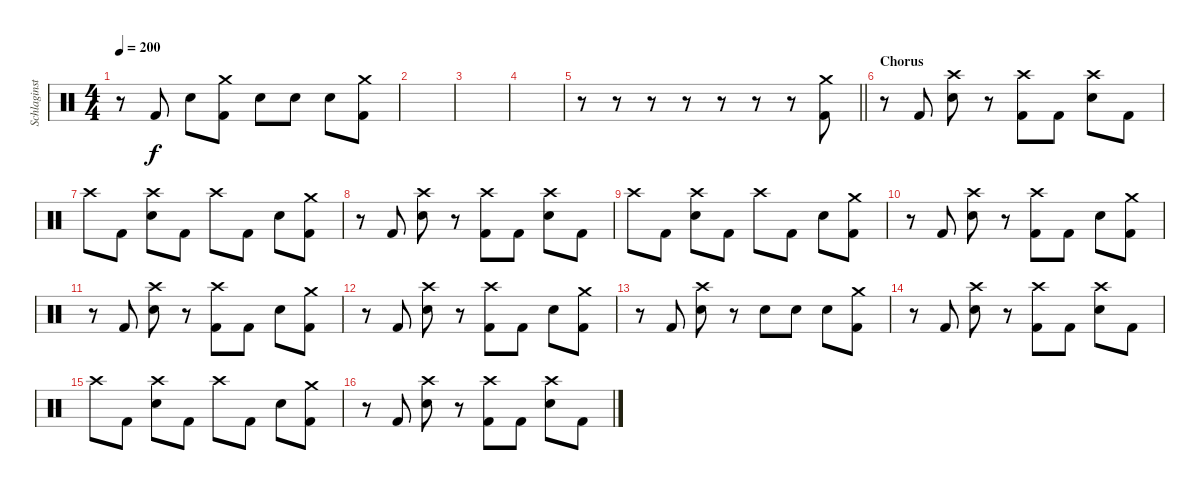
\track ("Schlaginstrumente - Auswahl" "Schlaginst") {instrument percussion}
\staff {score}
\articulation defaults
\ts (4 4)
\tempo 200
\clef neutral
\ks c
r.8{dy f} "Kick (hit) 2".8 "Electric Snare (hit)".8 ("Crash medium (hit)" "Kick (hit) 2").8 "Electric Snare (hit)".8 "Electric Snare (hit)".8 "Electric Snare (hit)".8 ("Crash medium (hit)" "Kick (hit) 2").8 |
|
|
|
\barLineRight lightlight
r.8 r.8 r.8 r.8 r.8 r.8 r.8 ("Crash medium (hit)" "Kick (hit) 2").8 |
\section ("" "Chorus")
r.8 "Kick (hit) 2".8 ("Crash high (hit)" "Electric Snare (hit)").8 r.8 ("Crash high (hit)" "Kick (hit) 2").8 "Kick (hit) 2".8 ("Crash high (hit)" "Electric Snare (hit)").8 "Kick (hit) 2".8 |
"Crash high (hit)".8 "Kick (hit) 2".8 ("Crash high (hit)" "Electric Snare (hit)").8 "Kick (hit) 2".8 "Crash high (hit)".8 "Kick (hit) 2".8 "Electric Snare (hit)".8 ("Crash medium (hit)" "Kick (hit) 2").8 |
r.8 "Kick (hit) 2".8 ("Crash high (hit)" "Electric Snare (hit)").8 r.8 ("Crash high (hit)" "Kick (hit) 2").8 "Kick (hit) 2".8 ("Crash high (hit)" "Electric Snare (hit)").8 "Kick (hit) 2".8 |
"Crash high (hit)".8 "Kick (hit) 2".8 ("Crash high (hit)" "Electric Snare (hit)").8 "Kick (hit) 2".8 "Crash high (hit)".8 "Kick (hit) 2".8 "Electric Snare (hit)".8 ("Crash medium (hit)" "Kick (hit) 2").8 |
r.8 "Kick (hit) 2".8 ("Crash high (hit)" "Electric Snare (hit)").8 r.8 ("Crash high (hit)" "Kick (hit) 2").8 "Kick (hit) 2".8 "Electric Snare (hit)".8 ("Crash medium (hit)" "Kick (hit) 2").8 |
r.8 "Kick (hit) 2".8 ("Crash high (hit)" "Electric Snare (hit)").8 r.8 ("Crash high (hit)" "Kick (hit) 2").8 "Kick (hit) 2".8 "Electric Snare (hit)".8 ("Crash medium (hit)" "Kick (hit) 2").8 |
r.8 "Kick (hit) 2".8 ("Crash high (hit)" "Electric Snare (hit)").8 r.8 ("Crash high (hit)" "Kick (hit) 2").8 "Kick (hit) 2".8 "Electric Snare (hit)".8 ("Crash medium (hit)" "Kick (hit) 2").8 |
r.8 "Kick (hit) 2".8 ("Crash high (hit)" "Electric Snare (hit)").8 r.8 "Electric Snare (hit)".8 "Electric Snare (hit)".8 "Electric Snare (hit)".8 ("Crash medium (hit)" "Kick (hit) 2").8 |
r.8 "Kick (hit) 2".8 ("Crash high (hit)" "Electric Snare (hit)").8 r.8 ("Crash high (hit)" "Kick (hit) 2").8 "Kick (hit) 2".8 ("Crash high (hit)" "Electric Snare (hit)").8 "Kick (hit) 2".8 |
"Crash high (hit)".8 "Kick (hit) 2".8 ("Crash high (hit)" "Electric Snare (hit)").8 "Kick (hit) 2".8 "Crash high (hit)".8 "Kick (hit) 2".8 "Electric Snare (hit)".8 ("Crash medium (hit)" "Kick (hit) 2").8 |
r.8 "Kick (hit) 2".8 ("Crash high (hit)" "Electric Snare (hit)").8 r.8 ("Crash high (hit)" "Kick (hit) 2").8 "Kick (hit) 2".8 ("Crash high (hit)" "Electric Snare (hit)").8 "Kick (hit) 2".8
